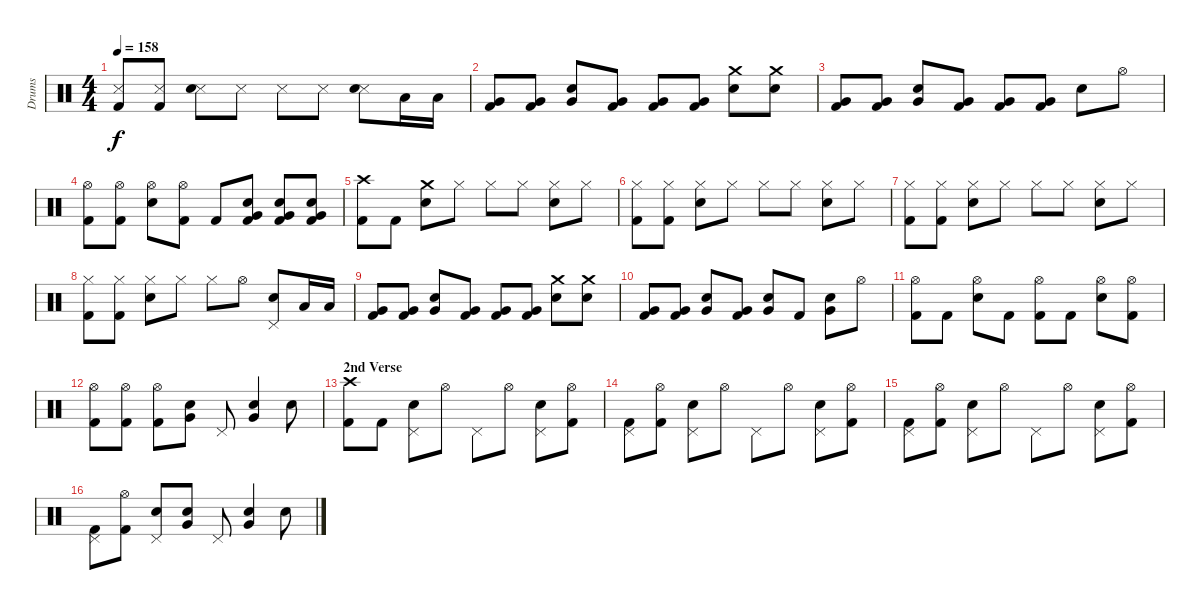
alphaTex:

\track ("Drums" "Drums") {instrument percussion}
\staff {score}
\articulation defaults
\ts (4 4)
\tempo 158
\clef neutral
\ks c
("Snare (side stick) 3" "Kick (hit) 2").8{dy f} ("Snare (side stick) 3" "Kick (hit) 2").8 ("Snare (side stick) 3" "Snare (hit) 2").8 "Snare (side stick) 3".8 "Snare (side stick) 3".8 "Snare (side stick) 3".8 ("Snare (side stick) 3" "Snare (hit) 2").8 "Low Tom (hit)".16 "Low Tom (hit)".16 |
("Very Low Tom (hit)" "Kick (hit) 2").8 ("Very Low Tom (hit)" "Kick (hit) 2").8 ("Snare (hit) 2" "Very Low Tom (hit)").8 ("Very Low Tom (hit)" "Kick (hit) 2").8 ("Very Low Tom (hit)" "Kick (hit) 2").8 ("Very Low Tom (hit)" "Kick (hit) 2").8 ("Crash medium (hit)" "Snare (hit) 2").8 ("Crash medium (hit)" "Snare (hit) 2").8 |
("Very Low Tom (hit)" "Kick (hit) 2").8 ("Very Low Tom (hit)" "Kick (hit) 2").8 ("Snare (hit) 2" "Very Low Tom (hit)").8 ("Very Low Tom (hit)" "Kick (hit) 2").8 ("Very Low Tom (hit)" "Kick (hit) 2").8 ("Very Low Tom (hit)" "Kick (hit) 2").8 "Snare (hit) 2".8 "Hi-Hat (open)".8 |
("Hi-Hat (open)" "Kick (hit) 2").8 ("Hi-Hat (open)" "Kick (hit) 2").8 ("Hi-Hat (open)" "Snare (hit) 2").8 ("Hi-Hat (open)" "Kick (hit) 2").8 "Kick (hit) 2".8 ("Snare (hit) 2" "Very Low Tom (hit)" "Kick (hit) 2").8 ("Snare (hit) 2" "Very Low Tom (hit)" "Kick (hit) 2").8 ("Snare (hit) 2" "Very Low Tom (hit)" "Kick (hit) 2").8 |
("Crash high (hit)" "Kick (hit) 2").8 "Kick (hit) 2".8 ("Crash medium (hit)" "Snare (hit) 2").8 "Hi-Hat (closed)".8 "Hi-Hat (closed)".8 "Hi-Hat (closed)".8 ("Hi-Hat (closed)" "Snare (hit) 2").8 "Hi-Hat (closed)".8 |
("Hi-Hat (closed)" "Kick (hit) 2").8 ("Hi-Hat (closed)" "Kick (hit) 2").8 ("Hi-Hat (closed)" "Snare (hit) 2").8 "Hi-Hat (closed)".8 "Hi-Hat (closed)".8 "Hi-Hat (closed)".8 ("Hi-Hat (closed)" "Snare (hit) 2").8 "Hi-Hat (closed)".8 |
("Hi-Hat (closed)" "Kick (hit) 2").8 ("Hi-Hat (closed)" "Kick (hit) 2").8 ("Hi-Hat (closed)" "Snare (hit) 2").8 "Hi-Hat (closed)".8 "Hi-Hat (closed)".8 "Hi-Hat (closed)".8 ("Hi-Hat (closed)" "Snare (hit) 2").8 "Hi-Hat (closed)".8 |
("Hi-Hat (closed)" "Kick (hit) 2").8 ("Hi-Hat (closed)" "Kick (hit) 2").8 ("Hi-Hat (closed)" "Snare (hit) 2").8 "Hi-Hat (closed)".8 "Hi-Hat (closed)".8 "Hi-Hat (open)".8 ("Pedal Hi-Hat (hit)" "Snare (hit) 2").8 "Low Tom (hit)".16 "Low Tom (hit)".16 |
("Very Low Tom (hit)" "Kick (hit) 2").8 ("Very Low Tom (hit)" "Kick (hit) 2").8 ("Snare (hit) 2" "Very Low Tom (hit)").8 ("Very Low Tom (hit)" "Kick (hit) 2").8 ("Very Low Tom (hit)" "Kick (hit) 2").8 ("Very Low Tom (hit)" "Kick (hit) 2").8 ("Crash medium (hit)" "Snare (hit) 2").8 ("Crash medium (hit)" "Snare (hit) 2").8 |
("Very Low Tom (hit)" "Kick (hit) 2").8 ("Very Low Tom (hit)" "Kick (hit) 2").8 ("Snare (hit) 2" "Very Low Tom (hit)").8 ("Very Low Tom (hit)" "Kick (hit) 2").8 ("Snare (hit) 2" "Very Low Tom (hit)").8 "Kick (hit) 2".8 ("Snare (hit) 2" "Very Low Tom (hit)").8 "Hi-Hat (open)".8 |
("Hi-Hat (open)" "Kick (hit) 2").8 "Kick (hit) 2".8 ("Hi-Hat (open)" "Snare (hit) 2").8 "Kick (hit) 2".8 ("Hi-Hat (open)" "Kick (hit) 2").8 "Kick (hit) 2".8 ("Hi-Hat (open)" "Snare (hit) 2").8 ("Hi-Hat (open)" "Kick (hit) 2").8 |
("Hi-Hat (open)" "Kick (hit) 2").8 ("Hi-Hat (open)" "Kick (hit) 2").8 ("Hi-Hat (open)" "Kick (hit) 2").8 ("Snare (hit) 2" "Very Low Tom (hit)").8 "Pedal Hi-Hat (hit)".8 ("Snare (hit) 2" "Very Low Tom (hit)").4 "Snare (hit) 2".8 |
\section ("" "2nd Verse")
("Crash high (hit)" "Kick (hit) 2").8 "Kick (hit) 2".8 ("Pedal Hi-Hat (hit)" "Snare (hit) 2").8 "Hi-Hat (open)".8 "Pedal Hi-Hat (hit)".8 "Hi-Hat (open)".8 ("Pedal Hi-Hat (hit)" "Snare (hit) 2").8 ("Hi-Hat (open)" "Kick (hit) 2").8 |
("Pedal Hi-Hat (hit)" "Kick (hit) 2").8 ("Hi-Hat (open)" "Kick (hit) 2").8 ("Pedal Hi-Hat (hit)" "Snare (hit) 2").8 "Hi-Hat (open)".8 "Pedal Hi-Hat (hit)".8 "Hi-Hat (open)".8 ("Pedal Hi-Hat (hit)" "Snare (hit) 2").8 ("Hi-Hat (open)" "Kick (hit) 2").8 |
("Pedal Hi-Hat (hit)" "Kick (hit) 2").8 ("Hi-Hat (open)" "Kick (hit) 2").8 ("Pedal Hi-Hat (hit)" "Snare (hit) 2").8 "Hi-Hat (open)".8 "Pedal Hi-Hat (hit)".8 "Hi-Hat (open)".8 ("Pedal Hi-Hat (hit)" "Snare (hit) 2").8 ("Hi-Hat (open)" "Kick (hit) 2").8 |
("Pedal Hi-Hat (hit)" "Kick (hit) 2").8 ("Hi-Hat (open)" "Kick (hit) 2").8 ("Pedal Hi-Hat (hit)" "Snare (hit) 2").8 ("Snare (hit) 2" "Very Low Tom (hit)").8 "Pedal Hi-Hat (hit)".8 ("Snare (hit) 2" "Very Low Tom (hit)").4 "Snare (hit) 2".8
